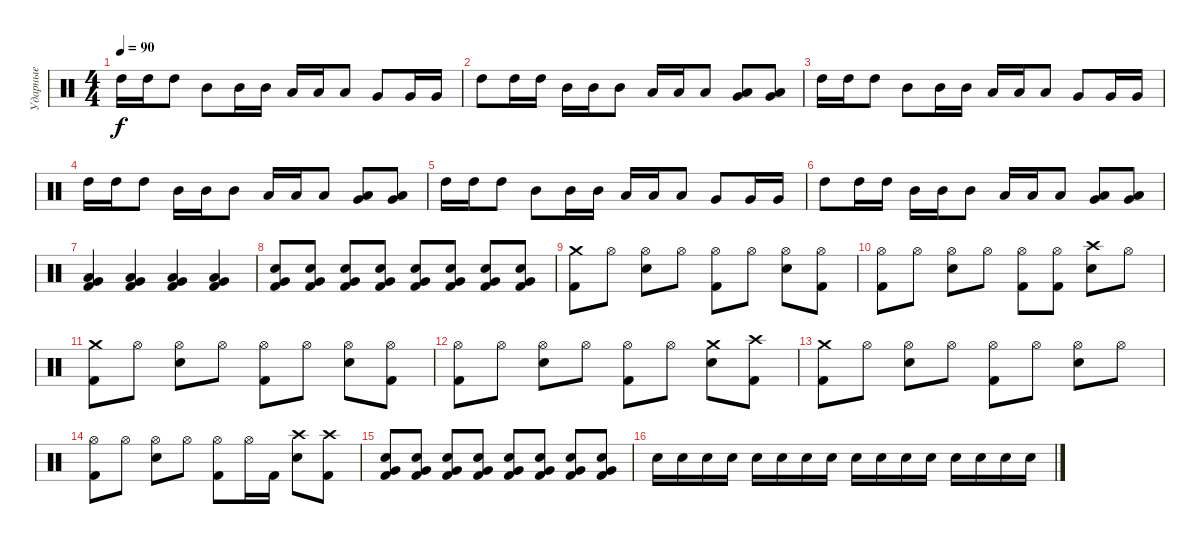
\track ("Ударные" "Ударные") {instrument percussion}
\staff {score}
\articulation defaults
\ts (4 4)
\tempo 90
\clef neutral
\ks c "High Tom (hit)".16{dy f volume 12} "High Tom (hit)".16 "High Tom (hit)".8 "Mid Tom (hit)".8 "Mid Tom (hit)".16 "Mid Tom (hit)".16 "Low Tom (hit)".16 "Low Tom (hit)".16 "Low Tom (hit)".8 "Very Low Tom (hit)".8 "Very Low Tom (hit)".16 "Very Low Tom (hit)".16
|
"High Tom (hit)".8 "High Tom (hit)".16 "High Tom (hit)".16 "Mid Tom (hit)".16 "Mid Tom (hit)".16 "Mid Tom (hit)".8 "Low Tom (hit)".16 "Low Tom (hit)".16 "Low Tom (hit)".8 ("Very Low Tom (hit)" "Low Floor Tom (hit)").8 ("Very Low Tom (hit)" "Low Floor Tom (hit)").8 |
"High Tom (hit)".16 "High Tom (hit)".16 "High Tom (hit)".8 "Mid Tom (hit)".8 "Mid Tom (hit)".16 "Mid Tom (hit)".16 "Low Tom (hit)".16 "Low Tom (hit)".16 "Low Tom (hit)".8 "Very Low Tom (hit)".8 "Very Low Tom (hit)".16 "Very Low Tom (hit)".16 |
"High Tom (hit)".16 "High Tom (hit)".16 "High Tom (hit)".8 "Mid Tom (hit)".16 "Mid Tom (hit)".16 "Mid Tom (hit)".8 "Low Tom (hit)".16 "Low Tom (hit)".16 "Low Tom (hit)".8 ("Very Low Tom (hit)" "Low Floor Tom (hit)").8 ("Very Low Tom (hit)" "Low Floor Tom (hit)").8 |
"High Tom (hit)".16{volume 16} "High Tom (hit)".16 "High Tom (hit)".8 "Mid Tom (hit)".8 "Mid Tom (hit)".16 "Mid Tom (hit)".16 "Low Tom (hit)".16 "Low Tom (hit)".16 "Low Tom (hit)".8 "Very Low Tom (hit)".8 "Very Low Tom (hit)".16 "Very Low Tom (hit)".16 |
"High Tom (hit)".8 "High Tom (hit)".16 "High Tom (hit)".16 "Mid Tom (hit)".16 "Mid Tom (hit)".16 "Mid Tom (hit)".8 "Low Tom (hit)".16 "Low Tom (hit)".16 "Low Tom (hit)".8 ("Very Low Tom (hit)" "Low Floor Tom (hit)").8 ("Very Low Tom (hit)" "Low Floor Tom (hit)").8 |
("Very Low Tom (hit)" "Low Floor Tom (hit)" "Kick (hit) 2").4 ("Very Low Tom (hit)" "Low Floor Tom (hit)" "Kick (hit) 2").4 ("Very Low Tom (hit)" "Low Floor Tom (hit)" "Kick (hit) 2").4 ("Very Low Tom (hit)" "Low Floor Tom (hit)" "Kick (hit) 2").4 |
("Electric Snare (hit)" "Very Low Tom (hit)" "Kick (hit) 2").8 ("Electric Snare (hit)" "Very Low Tom (hit)" "Kick (hit) 2").8 ("Electric Snare (hit)" "Very Low Tom (hit)" "Kick (hit) 2").8 ("Electric Snare (hit)" "Very Low Tom (hit)" "Kick (hit) 2").8 ("Electric Snare (hit)" "Very Low Tom (hit)" "Kick (hit) 2").8 ("Electric Snare (hit)" "Very Low Tom (hit)" "Kick (hit) 2").8 ("Electric Snare (hit)" "Very Low Tom (hit)" "Kick (hit) 2").8 ("Electric Snare (hit)" "Very Low Tom (hit)" "Kick (hit) 2").8 |
("Crash medium (hit)" "Kick (hit) 2").8 "Hi-Hat (open)".8 ("Hi-Hat (open)" "Electric Snare (hit)").8 "Hi-Hat (open)".8 ("Hi-Hat (open)" "Kick (hit) 2").8 "Hi-Hat (open)".8 ("Hi-Hat (open)" "Electric Snare (hit)").8 ("Hi-Hat (open)" "Kick (hit) 2").8 |
("Hi-Hat (open)" "Kick (hit) 2").8 "Hi-Hat (open)".8 ("Hi-Hat (open)" "Electric Snare (hit)").8 "Hi-Hat (open)".8 ("Hi-Hat (open)" "Kick (hit) 2").8 ("Hi-Hat (open)" "Kick (hit) 2").8 ("Crash high (hit)" "Electric Snare (hit)").8 "Hi-Hat (open)".8 |
("Crash medium (hit)" "Kick (hit) 2").8 "Hi-Hat (open)".8 ("Hi-Hat (open)" "Electric Snare (hit)").8 "Hi-Hat (open)".8 ("Hi-Hat (open)" "Kick (hit) 2").8 "Hi-Hat (open)".8 ("Hi-Hat (open)" "Electric Snare (hit)").8 ("Hi-Hat (open)" "Kick (hit) 2").8 |
("Hi-Hat (open)" "Kick (hit) 2").8 "Hi-Hat (open)".8 ("Hi-Hat (open)" "Electric Snare (hit)").8 "Hi-Hat (open)".8 ("Hi-Hat (open)" "Kick (hit) 2").8 "Hi-Hat (open)".8 ("Crash medium (hit)" "Electric Snare (hit)").8 ("Crash high (hit)" "Kick (hit) 2").8 |
("Crash medium (hit)" "Kick (hit) 2").8 "Hi-Hat (open)".8 ("Hi-Hat (open)" "Electric Snare (hit)").8 "Hi-Hat (open)".8 ("Hi-Hat (open)" "Kick (hit) 2").8 "Hi-Hat (open)".8 ("Hi-Hat (open)" "Electric Snare (hit)").8 "Hi-Hat (open)".8 |
("Hi-Hat (open)" "Kick (hit) 2").8 "Hi-Hat (open)".8 ("Hi-Hat (open)" "Electric Snare (hit)").8 "Hi-Hat (open)".8 ("Hi-Hat (open)" "Kick (hit) 2").8 "Hi-Hat (open)".16 "Kick (hit) 2".16 ("Crash high (hit)" "Electric Snare (hit)").8 ("Crash high (hit)" "Kick (hit) 2").8 |
("Electric Snare (hit)" "Very Low Tom (hit)" "Kick (hit) 2").8 ("Electric Snare (hit)" "Very Low Tom (hit)" "Kick (hit) 2").8 ("Electric Snare (hit)" "Very Low Tom (hit)" "Kick (hit) 2").8 ("Electric Snare (hit)" "Very Low Tom (hit)" "Kick (hit) 2").8 ("Electric Snare (hit)" "Very Low Tom (hit)" "Kick (hit) 2").8 ("Electric Snare (hit)" "Very Low Tom (hit)" "Kick (hit) 2").8 ("Electric Snare (hit)" "Very Low Tom (hit)" "Kick (hit) 2").8 ("Electric Snare (hit)" "Very Low Tom (hit)" "Kick (hit) 2").8 |
"Electric Snare (hit)".16 "Electric Snare (hit)".16 "Electric Snare (hit)".16 "Electric Snare (hit)".16 "Electric Snare (hit)".16 "Electric Snare (hit)".16 "Electric Snare (hit)".16 "Electric Snare (hit)".16 "Electric Snare (hit)".16 "Electric Snare (hit)".16 "Electric Snare (hit)".16 "Electric Snare (hit)".16 "Electric Snare (hit)".16 "Electric Snare (hit)".16 "Electric Snare (hit)".16 "Electric Snare (hit)".16
